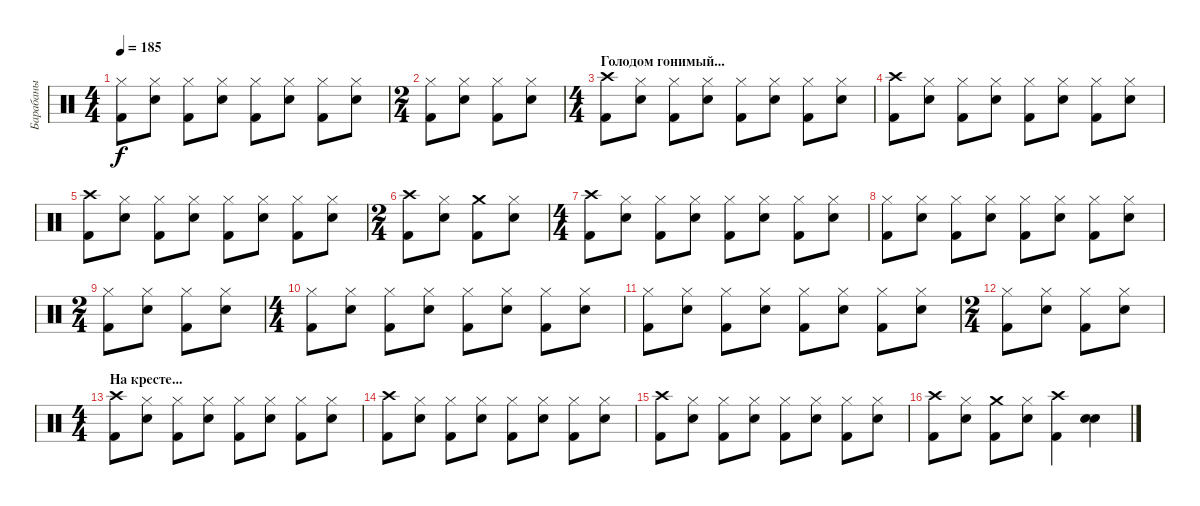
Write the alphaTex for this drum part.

\track ("Барабаны" "Барабаны") {instrument percussion}
\staff {score}
\articulation defaults
\ts (4 4)
\tempo 185
\clef neutral
\ks c
("Hi-Hat (closed)" "Kick (hit) 2").8{dy f} ("Hi-Hat (closed)" "Snare (hit) 2").8 ("Hi-Hat (closed)" "Kick (hit) 2").8 ("Hi-Hat (closed)" "Snare (hit) 2").8 ("Hi-Hat (closed)" "Kick (hit) 2").8 ("Hi-Hat (closed)" "Snare (hit) 2").8 ("Hi-Hat (closed)" "Kick (hit) 2").8 ("Hi-Hat (closed)" "Snare (hit) 2").8 |
\ts (2 4)
("Hi-Hat (closed)" "Kick (hit) 2").8 ("Hi-Hat (closed)" "Snare (hit) 2").8 ("Hi-Hat (closed)" "Kick (hit) 2").8 ("Hi-Hat (closed)" "Snare (hit) 2").8 |
\ts (4 4)
\section ("" "Голодом гонимый...")
("Crash high (hit)" "Kick (hit) 2").8 ("Hi-Hat (closed)" "Snare (hit) 2").8 ("Hi-Hat (closed)" "Kick (hit) 2").8 ("Hi-Hat (closed)" "Snare (hit) 2").8 ("Hi-Hat (closed)" "Kick (hit) 2").8 ("Hi-Hat (closed)" "Snare (hit) 2").8 ("Hi-Hat (closed)" "Kick (hit) 2").8 ("Hi-Hat (closed)" "Snare (hit) 2").8 |
("Crash high (hit)" "Kick (hit) 2").8 ("Hi-Hat (closed)" "Snare (hit) 2").8 ("Hi-Hat (closed)" "Kick (hit) 2").8 ("Hi-Hat (closed)" "Snare (hit) 2").8 ("Hi-Hat (closed)" "Kick (hit) 2").8 ("Hi-Hat (closed)" "Snare (hit) 2").8 ("Hi-Hat (closed)" "Kick (hit) 2").8 ("Hi-Hat (closed)" "Snare (hit) 2").8 |
("Crash high (hit)" "Kick (hit) 2").8 ("Hi-Hat (closed)" "Snare (hit) 2").8 ("Hi-Hat (closed)" "Kick (hit) 2").8 ("Hi-Hat (closed)" "Snare (hit) 2").8 ("Hi-Hat (closed)" "Kick (hit) 2").8 ("Hi-Hat (closed)" "Snare (hit) 2").8 ("Hi-Hat (closed)" "Kick (hit) 2").8 ("Hi-Hat (closed)" "Snare (hit) 2").8 |
\ts (2 4)
("Crash high (hit)" "Kick (hit) 2").8 ("Hi-Hat (closed)" "Snare (hit) 2").8 ("Crash medium (hit)" "Kick (hit) 2").8 ("Hi-Hat (closed)" "Snare (hit) 2").8 |
\ts (4 4)
("Crash high (hit)" "Kick (hit) 2").8 ("Hi-Hat (closed)" "Snare (hit) 2").8 ("Hi-Hat (closed)" "Kick (hit) 2").8 ("Hi-Hat (closed)" "Snare (hit) 2").8 ("Hi-Hat (closed)" "Kick (hit) 2").8 ("Hi-Hat (closed)" "Snare (hit) 2").8 ("Hi-Hat (closed)" "Kick (hit) 2").8 ("Hi-Hat (closed)" "Snare (hit) 2").8 |
("Hi-Hat (closed)" "Kick (hit) 2").8 ("Hi-Hat (closed)" "Snare (hit) 2").8 ("Hi-Hat (closed)" "Kick (hit) 2").8 ("Hi-Hat (closed)" "Snare (hit) 2").8 ("Hi-Hat (closed)" "Kick (hit) 2").8 ("Hi-Hat (closed)" "Snare (hit) 2").8 ("Hi-Hat (closed)" "Kick (hit) 2").8 ("Hi-Hat (closed)" "Snare (hit) 2").8 |
\ts (2 4)
("Hi-Hat (closed)" "Kick (hit) 2").8 ("Hi-Hat (closed)" "Snare (hit) 2").8 ("Hi-Hat (closed)" "Kick (hit) 2").8 ("Hi-Hat (closed)" "Snare (hit) 2").8 |
\ts (4 4)
("Hi-Hat (closed)" "Kick (hit) 2").8 ("Hi-Hat (closed)" "Snare (hit) 2").8 ("Hi-Hat (closed)" "Kick (hit) 2").8 ("Hi-Hat (closed)" "Snare (hit) 2").8 ("Hi-Hat (closed)" "Kick (hit) 2").8 ("Hi-Hat (closed)" "Snare (hit) 2").8 ("Hi-Hat (closed)" "Kick (hit) 2").8 ("Hi-Hat (closed)" "Snare (hit) 2").8 |
("Hi-Hat (closed)" "Kick (hit) 2").8 ("Hi-Hat (closed)" "Snare (hit) 2").8 ("Hi-Hat (closed)" "Kick (hit) 2").8 ("Hi-Hat (closed)" "Snare (hit) 2").8 ("Hi-Hat (closed)" "Kick (hit) 2").8 ("Hi-Hat (closed)" "Snare (hit) 2").8 ("Hi-Hat (closed)" "Kick (hit) 2").8 ("Hi-Hat (closed)" "Snare (hit) 2").8 |
\ts (2 4)
("Hi-Hat (closed)" "Kick (hit) 2").8 ("Hi-Hat (closed)" "Snare (hit) 2").8 ("Hi-Hat (closed)" "Kick (hit) 2").8 ("Hi-Hat (closed)" "Snare (hit) 2").8 |
\ts (4 4)
\section ("" "На кресте...")
("Crash high (hit)" "Kick (hit) 2").8 ("Hi-Hat (closed)" "Snare (hit) 2").8 ("Hi-Hat (closed)" "Kick (hit) 2").8 ("Hi-Hat (closed)" "Snare (hit) 2").8 ("Hi-Hat (closed)" "Kick (hit) 2").8 ("Hi-Hat (closed)" "Snare (hit) 2").8 ("Hi-Hat (closed)" "Kick (hit) 2").8 ("Hi-Hat (closed)" "Snare (hit) 2").8 |
("Crash high (hit)" "Kick (hit) 2").8 ("Hi-Hat (closed)" "Snare (hit) 2").8 ("Hi-Hat (closed)" "Kick (hit) 2").8 ("Hi-Hat (closed)" "Snare (hit) 2").8 ("Hi-Hat (closed)" "Kick (hit) 2").8 ("Hi-Hat (closed)" "Snare (hit) 2").8 ("Hi-Hat (closed)" "Kick (hit) 2").8 ("Hi-Hat (closed)" "Snare (hit) 2").8 |
("Crash high (hit)" "Kick (hit) 2").8 ("Hi-Hat (closed)" "Snare (hit) 2").8 ("Hi-Hat (closed)" "Kick (hit) 2").8 ("Hi-Hat (closed)" "Snare (hit) 2").8 ("Hi-Hat (closed)" "Kick (hit) 2").8 ("Hi-Hat (closed)" "Snare (hit) 2").8 ("Hi-Hat (closed)" "Kick (hit) 2").8 ("Hi-Hat (closed)" "Snare (hit) 2").8 |
("Crash high (hit)" "Kick (hit) 2").8 ("Hi-Hat (closed)" "Snare (hit) 2").8 ("Crash medium (hit)" "Kick (hit) 2").8 ("Hi-Hat (closed)" "Snare (hit) 2").8 ("Crash high (hit)" "Kick (hit) 2").4 ("Snare (hit) 2" "Snare (hit) 2").4
